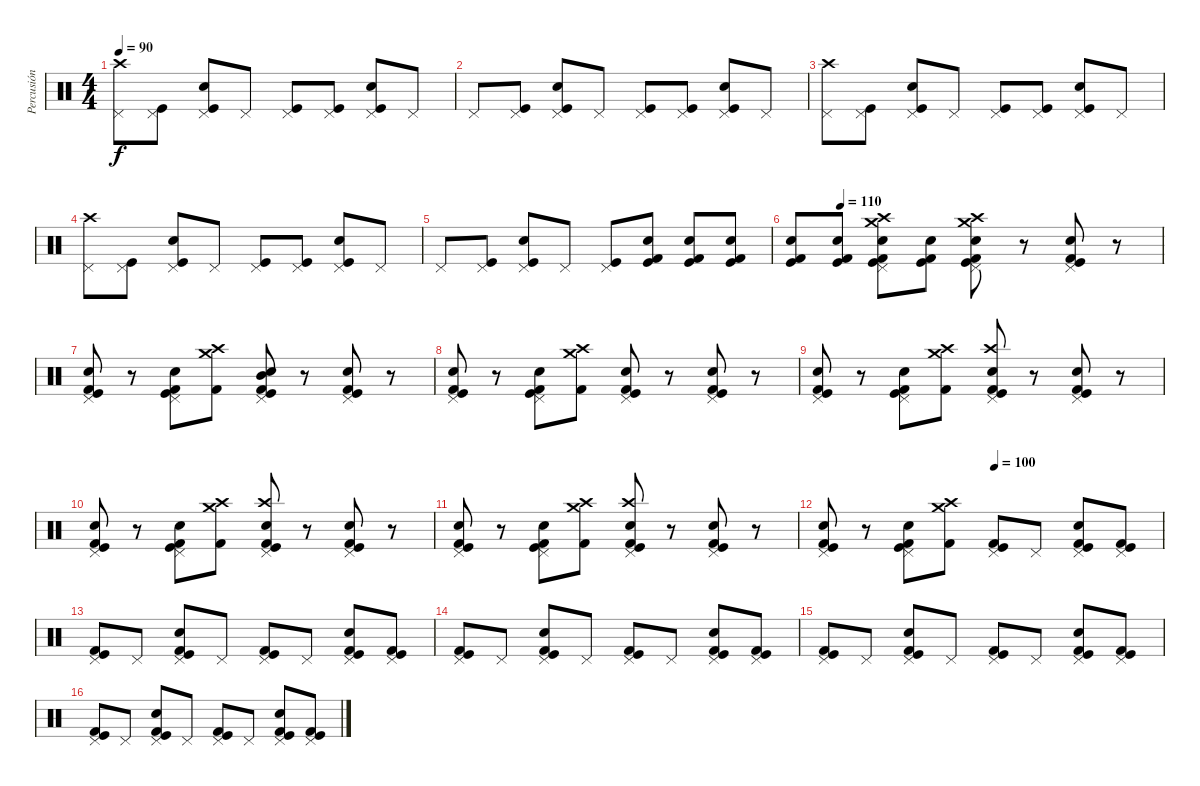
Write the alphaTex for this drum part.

\track ("Percusión" "Percusión") {instrument percussion}
\staff {score}
\articulation defaults
\ts (4 4)
\tempo 90
\clef neutral
\ks c
("Pedal Hi-Hat (hit)" "Crash high (hit)").8{dy f balance 4} ("Pedal Hi-Hat (hit)" "Kick (hit)").8{balance 8} ("Pedal Hi-Hat (hit)" "Kick (hit)" "Snare (hit) 2").8 "Pedal Hi-Hat (hit)".8 ("Pedal Hi-Hat (hit)" "Kick (hit)").8 ("Pedal Hi-Hat (hit)" "Kick (hit)").8 ("Pedal Hi-Hat (hit)" "Kick (hit)" "Snare (hit) 2").8 "Pedal Hi-Hat (hit)".8 |
"Pedal Hi-Hat (hit)".8 ("Pedal Hi-Hat (hit)" "Kick (hit)").8 ("Pedal Hi-Hat (hit)" "Kick (hit)" "Snare (hit) 2").8 "Pedal Hi-Hat (hit)".8 ("Pedal Hi-Hat (hit)" "Kick (hit)").8 ("Pedal Hi-Hat (hit)" "Kick (hit)").8 ("Pedal Hi-Hat (hit)" "Kick (hit)" "Snare (hit) 2").8 "Pedal Hi-Hat (hit)".8 |
("Pedal Hi-Hat (hit)" "Crash high (hit)").8{balance 12} ("Pedal Hi-Hat (hit)" "Kick (hit)").8{balance 8} ("Pedal Hi-Hat (hit)" "Kick (hit)" "Snare (hit) 2").8 "Pedal Hi-Hat (hit)".8 ("Pedal Hi-Hat (hit)" "Kick (hit)").8 ("Pedal Hi-Hat (hit)" "Kick (hit)").8 ("Pedal Hi-Hat (hit)" "Kick (hit)" "Snare (hit) 2").8 "Pedal Hi-Hat (hit)".8 |
("Pedal Hi-Hat (hit)" "Crash high (hit)").8{balance 4} ("Pedal Hi-Hat (hit)" "Kick (hit)").8{balance 8} ("Pedal Hi-Hat (hit)" "Kick (hit)" "Snare (hit) 2").8 "Pedal Hi-Hat (hit)".8 ("Pedal Hi-Hat (hit)" "Kick (hit)").8 ("Pedal Hi-Hat (hit)" "Kick (hit)").8 ("Pedal Hi-Hat (hit)" "Kick (hit)" "Snare (hit) 2").8 "Pedal Hi-Hat (hit)".8 |
"Pedal Hi-Hat (hit)".8 ("Pedal Hi-Hat (hit)" "Kick (hit)").8 ("Pedal Hi-Hat (hit)" "Kick (hit)" "Snare (hit) 2").8 "Pedal Hi-Hat (hit)".8 ("Pedal Hi-Hat (hit)" "Kick (hit)").8{volume 14} ("Kick (hit) 2" "Kick (hit)" "Snare (hit) 2").8 ("Kick (hit)" "Kick (hit) 2" "Snare (hit) 2").8 ("Kick (hit)" "Kick (hit) 2" "Snare (hit) 2").8 |
\tempo (110 0.125)
("Kick (hit)" "Kick (hit) 2" "Snare (hit) 2").8 ("Kick (hit)" "Kick (hit) 2" "Snare (hit) 2").8 ("Crash high (hit)" "Crash medium (hit)" "Kick (hit)" "Kick (hit) 2" "Snare (hit) 2" "Pedal Hi-Hat (hit)").8 ("Kick (hit)" "Kick (hit) 2" "Snare (hit) 2").8 ("Crash high (hit)" "Crash medium (hit)" "Kick (hit)" "Kick (hit) 2" "Snare (hit) 2" "Pedal Hi-Hat (hit)").8 r.8 ("Pedal Hi-Hat (hit)" "Kick (hit)" "Kick (hit) 2" "Snare (hit) 2").8 r.8 |
("Pedal Hi-Hat (hit)" "Kick (hit)" "Kick (hit) 2" "Snare (hit) 2").8 r.8 ("Pedal Hi-Hat (hit)" "Kick (hit)" "Kick (hit) 2" "Snare (hit) 2").8 ("Crash high (hit)" "Crash medium (hit)" "Kick (hit) 2").8 ("Mid Tom (hit)" "Pedal Hi-Hat (hit)" "Kick (hit)" "Kick (hit) 2" "Snare (hit) 2").8 r.8 ("Pedal Hi-Hat (hit)" "Kick (hit)" "Kick (hit) 2" "Snare (hit) 2").8 r.8 |
("Pedal Hi-Hat (hit)" "Kick (hit)" "Kick (hit) 2" "Snare (hit) 2").8 r.8 ("Pedal Hi-Hat (hit)" "Kick (hit)" "Kick (hit) 2" "Snare (hit) 2").8 ("Crash high (hit)" "Crash medium (hit)" "Kick (hit) 2").8 ("Pedal Hi-Hat (hit)" "Kick (hit)" "Kick (hit) 2" "Snare (hit) 2").8 r.8 ("Pedal Hi-Hat (hit)" "Kick (hit)" "Kick (hit) 2" "Snare (hit) 2").8 r.8 |
("Pedal Hi-Hat (hit)" "Kick (hit)" "Kick (hit) 2" "Snare (hit) 2").8 r.8 ("Pedal Hi-Hat (hit)" "Kick (hit)" "Kick (hit) 2" "Snare (hit) 2").8 ("Crash high (hit)" "Crash medium (hit)" "Kick (hit) 2").8 ("Crash high (hit)" "Pedal Hi-Hat (hit)" "Kick (hit)" "Kick (hit) 2" "Snare (hit) 2").8 r.8 ("Pedal Hi-Hat (hit)" "Kick (hit)" "Kick (hit) 2" "Snare (hit) 2").8 r.8 |
("Pedal Hi-Hat (hit)" "Kick (hit)" "Kick (hit) 2" "Snare (hit) 2").8 r.8 ("Pedal Hi-Hat (hit)" "Kick (hit)" "Kick (hit) 2" "Snare (hit) 2").8 ("Crash high (hit)" "Crash medium (hit)" "Kick (hit) 2").8 ("Crash high (hit)" "Pedal Hi-Hat (hit)" "Kick (hit)" "Kick (hit) 2" "Snare (hit) 2").8 r.8 ("Pedal Hi-Hat (hit)" "Kick (hit)" "Kick (hit) 2" "Snare (hit) 2").8 r.8 |
("Pedal Hi-Hat (hit)" "Kick (hit)" "Kick (hit) 2" "Snare (hit) 2").8 r.8 ("Pedal Hi-Hat (hit)" "Kick (hit)" "Kick (hit) 2" "Snare (hit) 2").8 ("Crash high (hit)" "Crash medium (hit)" "Kick (hit) 2").8 ("Crash high (hit)" "Pedal Hi-Hat (hit)" "Kick (hit)" "Kick (hit) 2" "Snare (hit) 2").8 r.8 ("Pedal Hi-Hat (hit)" "Kick (hit)" "Kick (hit) 2" "Snare (hit) 2").8 r.8 |
\tempo (100 0.5)
("Pedal Hi-Hat (hit)" "Kick (hit)" "Kick (hit) 2" "Snare (hit) 2").8 r.8 ("Pedal Hi-Hat (hit)" "Kick (hit)" "Kick (hit) 2" "Snare (hit) 2").8 ("Crash high (hit)" "Crash medium (hit)" "Kick (hit) 2").8 ("Pedal Hi-Hat (hit)" "Kick (hit)" "Kick (hit) 2").8{volume 8} "Pedal Hi-Hat (hit)".8 ("Pedal Hi-Hat (hit)" "Kick (hit)" "Kick (hit) 2" "Snare (hit) 2").8 ("Pedal Hi-Hat (hit)" "Kick (hit)" "Kick (hit) 2").8 |
("Pedal Hi-Hat (hit)" "Kick (hit)" "Kick (hit) 2").8 "Pedal Hi-Hat (hit)".8 ("Pedal Hi-Hat (hit)" "Kick (hit)" "Kick (hit) 2" "Snare (hit) 2").8 "Pedal Hi-Hat (hit)".8 ("Pedal Hi-Hat (hit)" "Kick (hit)" "Kick (hit) 2").8 "Pedal Hi-Hat (hit)".8 ("Pedal Hi-Hat (hit)" "Kick (hit)" "Kick (hit) 2" "Snare (hit) 2").8 ("Pedal Hi-Hat (hit)" "Kick (hit)" "Kick (hit) 2").8 |
("Pedal Hi-Hat (hit)" "Kick (hit)" "Kick (hit) 2").8 "Pedal Hi-Hat (hit)".8 ("Pedal Hi-Hat (hit)" "Kick (hit)" "Kick (hit) 2" "Snare (hit) 2").8 "Pedal Hi-Hat (hit)".8 ("Pedal Hi-Hat (hit)" "Kick (hit)" "Kick (hit) 2").8 "Pedal Hi-Hat (hit)".8 ("Pedal Hi-Hat (hit)" "Kick (hit)" "Kick (hit) 2" "Snare (hit) 2").8 ("Pedal Hi-Hat (hit)" "Kick (hit)" "Kick (hit) 2").8 |
("Pedal Hi-Hat (hit)" "Kick (hit)" "Kick (hit) 2").8 "Pedal Hi-Hat (hit)".8 ("Pedal Hi-Hat (hit)" "Kick (hit)" "Kick (hit) 2" "Snare (hit) 2").8 "Pedal Hi-Hat (hit)".8 ("Pedal Hi-Hat (hit)" "Kick (hit)" "Kick (hit) 2").8 "Pedal Hi-Hat (hit)".8 ("Pedal Hi-Hat (hit)" "Kick (hit)" "Kick (hit) 2" "Snare (hit) 2").8 ("Pedal Hi-Hat (hit)" "Kick (hit)" "Kick (hit) 2").8 |
("Pedal Hi-Hat (hit)" "Kick (hit)" "Kick (hit) 2").8 "Pedal Hi-Hat (hit)".8 ("Pedal Hi-Hat (hit)" "Kick (hit)" "Kick (hit) 2" "Snare (hit) 2").8 "Pedal Hi-Hat (hit)".8 ("Pedal Hi-Hat (hit)" "Kick (hit)" "Kick (hit) 2").8 "Pedal Hi-Hat (hit)".8 ("Pedal Hi-Hat (hit)" "Kick (hit)" "Kick (hit) 2" "Snare (hit) 2").8 ("Pedal Hi-Hat (hit)" "Kick (hit)" "Kick (hit) 2").8
